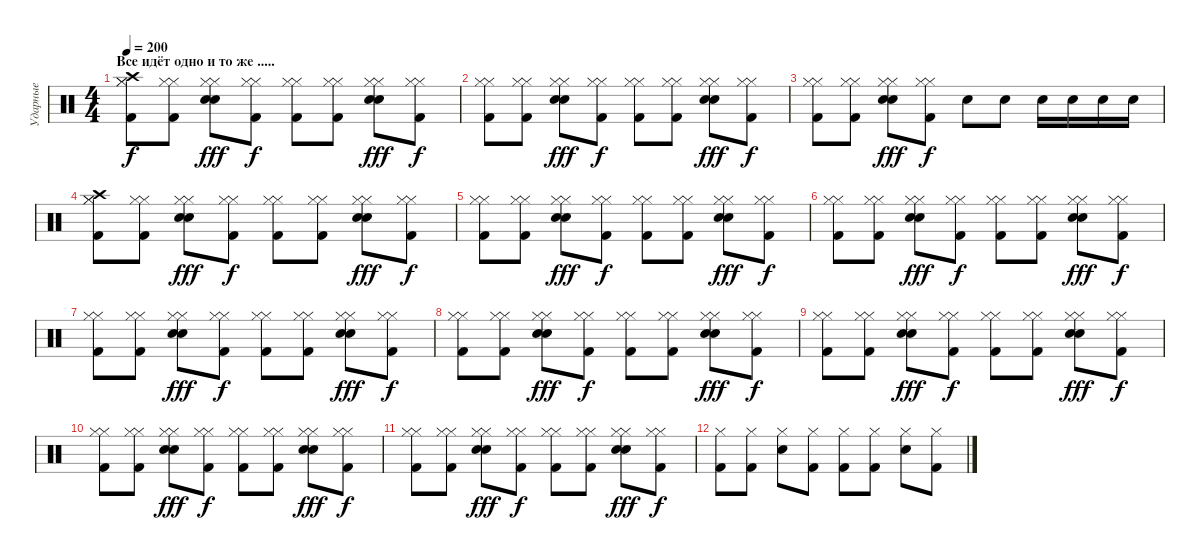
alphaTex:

\track ("Ударные" "Ударные") {instrument percussion}
\staff {score}
\articulation defaults
\ts (4 4)
\section ("" "Все идёт одно и то же .....")
\tempo 200
\clef neutral
\ks c
("Hi-Hat (closed)" "Hi-Hat (closed)" "Kick (hit) 2" "Crash high (hit)").8{dy f} ("Hi-Hat (closed)" "Hi-Hat (closed)" "Kick (hit) 2").8 ("Electric Snare (hit)" "Hi-Hat (closed)" "Hi-Hat (closed)" "Electric Snare (hit)").8{dy fff} ("Hi-Hat (closed)" "Hi-Hat (closed)" "Kick (hit) 2").8{dy f} ("Hi-Hat (closed)" "Hi-Hat (closed)" "Kick (hit) 2").8 ("Hi-Hat (closed)" "Hi-Hat (closed)" "Kick (hit) 2").8 ("Electric Snare (hit)" "Hi-Hat (closed)" "Hi-Hat (closed)" "Electric Snare (hit)").8{dy fff} ("Hi-Hat (closed)" "Hi-Hat (closed)" "Kick (hit) 2").8{dy f} |
("Hi-Hat (closed)" "Hi-Hat (closed)" "Kick (hit) 2").8 ("Hi-Hat (closed)" "Hi-Hat (closed)" "Kick (hit) 2").8 ("Electric Snare (hit)" "Hi-Hat (closed)" "Hi-Hat (closed)" "Electric Snare (hit)").8{dy fff} ("Hi-Hat (closed)" "Hi-Hat (closed)" "Kick (hit) 2").8{dy f} ("Hi-Hat (closed)" "Hi-Hat (closed)" "Kick (hit) 2").8 ("Hi-Hat (closed)" "Hi-Hat (closed)" "Kick (hit) 2").8 ("Electric Snare (hit)" "Hi-Hat (closed)" "Hi-Hat (closed)" "Electric Snare (hit)").8{dy fff} ("Hi-Hat (closed)" "Hi-Hat (closed)" "Kick (hit) 2").8{dy f} |
("Hi-Hat (closed)" "Hi-Hat (closed)" "Kick (hit) 2").8 ("Hi-Hat (closed)" "Hi-Hat (closed)" "Kick (hit) 2").8 ("Electric Snare (hit)" "Hi-Hat (closed)" "Hi-Hat (closed)" "Electric Snare (hit)").8{dy fff} ("Hi-Hat (closed)" "Hi-Hat (closed)" "Kick (hit) 2").8{dy f} "Electric Snare (hit)".8 "Electric Snare (hit)".8 "Electric Snare (hit)".16 "Electric Snare (hit)".16 "Electric Snare (hit)".16 "Electric Snare (hit)".16 |
("Hi-Hat (closed)" "Hi-Hat (closed)" "Kick (hit) 2" "Crash high (hit)").8 ("Hi-Hat (closed)" "Hi-Hat (closed)" "Kick (hit) 2").8 ("Electric Snare (hit)" "Hi-Hat (closed)" "Hi-Hat (closed)" "Electric Snare (hit)").8{dy fff} ("Hi-Hat (closed)" "Hi-Hat (closed)" "Kick (hit) 2").8{dy f} ("Hi-Hat (closed)" "Hi-Hat (closed)" "Kick (hit) 2").8 ("Hi-Hat (closed)" "Hi-Hat (closed)" "Kick (hit) 2").8 ("Electric Snare (hit)" "Hi-Hat (closed)" "Hi-Hat (closed)" "Electric Snare (hit)").8{dy fff} ("Hi-Hat (closed)" "Hi-Hat (closed)" "Kick (hit) 2").8{dy f} |
("Hi-Hat (closed)" "Hi-Hat (closed)" "Kick (hit) 2").8 ("Hi-Hat (closed)" "Hi-Hat (closed)" "Kick (hit) 2").8 ("Electric Snare (hit)" "Hi-Hat (closed)" "Hi-Hat (closed)" "Electric Snare (hit)").8{dy fff} ("Hi-Hat (closed)" "Hi-Hat (closed)" "Kick (hit) 2").8{dy f} ("Hi-Hat (closed)" "Hi-Hat (closed)" "Kick (hit) 2").8 ("Hi-Hat (closed)" "Hi-Hat (closed)" "Kick (hit) 2").8 ("Electric Snare (hit)" "Hi-Hat (closed)" "Hi-Hat (closed)" "Electric Snare (hit)").8{dy fff} ("Hi-Hat (closed)" "Hi-Hat (closed)" "Kick (hit) 2").8{dy f} |
("Hi-Hat (closed)" "Hi-Hat (closed)" "Kick (hit) 2").8 ("Hi-Hat (closed)" "Hi-Hat (closed)" "Kick (hit) 2").8 ("Electric Snare (hit)" "Hi-Hat (closed)" "Hi-Hat (closed)" "Electric Snare (hit)").8{dy fff} ("Hi-Hat (closed)" "Hi-Hat (closed)" "Kick (hit) 2").8{dy f} ("Hi-Hat (closed)" "Hi-Hat (closed)" "Kick (hit) 2").8 ("Hi-Hat (closed)" "Hi-Hat (closed)" "Kick (hit) 2").8 ("Electric Snare (hit)" "Hi-Hat (closed)" "Hi-Hat (closed)" "Electric Snare (hit)").8{dy fff} ("Hi-Hat (closed)" "Hi-Hat (closed)" "Kick (hit) 2").8{dy f} |
("Hi-Hat (closed)" "Hi-Hat (closed)" "Kick (hit) 2").8 ("Hi-Hat (closed)" "Hi-Hat (closed)" "Kick (hit) 2").8 ("Electric Snare (hit)" "Hi-Hat (closed)" "Hi-Hat (closed)" "Electric Snare (hit)").8{dy fff} ("Hi-Hat (closed)" "Hi-Hat (closed)" "Kick (hit) 2").8{dy f} ("Hi-Hat (closed)" "Hi-Hat (closed)" "Kick (hit) 2").8 ("Hi-Hat (closed)" "Hi-Hat (closed)" "Kick (hit) 2").8 ("Electric Snare (hit)" "Hi-Hat (closed)" "Hi-Hat (closed)" "Electric Snare (hit)").8{dy fff} ("Hi-Hat (closed)" "Hi-Hat (closed)" "Kick (hit) 2").8{dy f} |
("Hi-Hat (closed)" "Hi-Hat (closed)" "Kick (hit) 2").8 ("Hi-Hat (closed)" "Hi-Hat (closed)" "Kick (hit) 2").8 ("Electric Snare (hit)" "Hi-Hat (closed)" "Hi-Hat (closed)" "Electric Snare (hit)").8{dy fff} ("Hi-Hat (closed)" "Hi-Hat (closed)" "Kick (hit) 2").8{dy f} ("Hi-Hat (closed)" "Hi-Hat (closed)" "Kick (hit) 2").8 ("Hi-Hat (closed)" "Hi-Hat (closed)" "Kick (hit) 2").8 ("Electric Snare (hit)" "Hi-Hat (closed)" "Hi-Hat (closed)" "Electric Snare (hit)").8{dy fff} ("Hi-Hat (closed)" "Hi-Hat (closed)" "Kick (hit) 2").8{dy f} |
("Hi-Hat (closed)" "Hi-Hat (closed)" "Kick (hit) 2").8 ("Hi-Hat (closed)" "Hi-Hat (closed)" "Kick (hit) 2").8 ("Electric Snare (hit)" "Hi-Hat (closed)" "Hi-Hat (closed)" "Electric Snare (hit)").8{dy fff} ("Hi-Hat (closed)" "Hi-Hat (closed)" "Kick (hit) 2").8{dy f} ("Hi-Hat (closed)" "Hi-Hat (closed)" "Kick (hit) 2").8 ("Hi-Hat (closed)" "Hi-Hat (closed)" "Kick (hit) 2").8 ("Electric Snare (hit)" "Hi-Hat (closed)" "Hi-Hat (closed)" "Electric Snare (hit)").8{dy fff} ("Hi-Hat (closed)" "Hi-Hat (closed)" "Kick (hit) 2").8{dy f} |
("Hi-Hat (closed)" "Hi-Hat (closed)" "Kick (hit) 2").8 ("Hi-Hat (closed)" "Hi-Hat (closed)" "Kick (hit) 2").8 ("Electric Snare (hit)" "Hi-Hat (closed)" "Hi-Hat (closed)" "Electric Snare (hit)").8{dy fff} ("Hi-Hat (closed)" "Hi-Hat (closed)" "Kick (hit) 2").8{dy f} ("Hi-Hat (closed)" "Hi-Hat (closed)" "Kick (hit) 2").8 ("Hi-Hat (closed)" "Hi-Hat (closed)" "Kick (hit) 2").8 ("Electric Snare (hit)" "Hi-Hat (closed)" "Hi-Hat (closed)" "Electric Snare (hit)").8{dy fff} ("Hi-Hat (closed)" "Hi-Hat (closed)" "Kick (hit) 2").8{dy f} |
("Hi-Hat (closed)" "Hi-Hat (closed)" "Kick (hit) 2").8 ("Hi-Hat (closed)" "Hi-Hat (closed)" "Kick (hit) 2").8 ("Electric Snare (hit)" "Hi-Hat (closed)" "Hi-Hat (closed)" "Electric Snare (hit)").8{dy fff} ("Hi-Hat (closed)" "Hi-Hat (closed)" "Kick (hit) 2").8{dy f} ("Hi-Hat (closed)" "Hi-Hat (closed)" "Kick (hit) 2").8 ("Hi-Hat (closed)" "Hi-Hat (closed)" "Kick (hit) 2").8 ("Electric Snare (hit)" "Hi-Hat (closed)" "Hi-Hat (closed)" "Electric Snare (hit)").8{dy fff} ("Hi-Hat (closed)" "Hi-Hat (closed)" "Kick (hit) 2").8{dy f} |
("Hi-Hat (closed)" "Kick (hit) 2").8 ("Hi-Hat (closed)" "Kick (hit) 2").8 ("Hi-Hat (closed)" "Electric Snare (hit)").8 ("Hi-Hat (closed)" "Kick (hit) 2").8 ("Hi-Hat (closed)" "Kick (hit) 2").8 ("Hi-Hat (closed)" "Kick (hit) 2").8 ("Hi-Hat (closed)" "Electric Snare (hit)").8 ("Hi-Hat (closed)" "Kick (hit) 2").8
